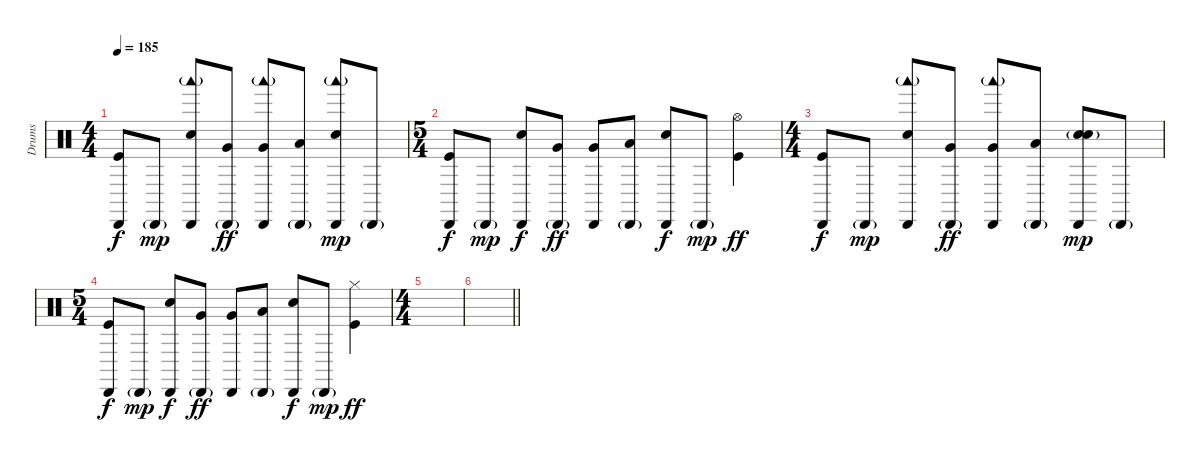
\track ("Drums" "Drums") {instrument percussion}
\staff {score}
\articulation defaults
\ts (4 4)
\tempo 185
\clef neutral
\ks c
("Cabasa (hit)" "Kick (hit)").8{dy f} "Cabasa (hit)"{g}.8{dy mp} ("Woodblock low (hit)"{g} "Cabasa (hit)" "Snare (hit) 2").8 ("Cabasa (hit)"{g} "Very Low Tom (hit)").8{dy ff} ("Woodblock low (hit)"{g} "Cabasa (hit)" "Very Low Tom (hit)").8 ("Cabasa (hit)"{g} "Low Floor Tom (hit)").8 ("Woodblock low (hit)"{g} "Cabasa (hit)" "Snare (hit) 2").8{dy mp} "Cabasa (hit)"{g}.8 |
\ts (5 4)
("Cabasa (hit)" "Kick (hit)").8{dy f} "Cabasa (hit)"{g}.8{dy mp} ("Cabasa (hit)" "Snare (hit) 2").8{dy f} ("Cabasa (hit)"{g} "Very Low Tom (hit)").8{dy ff} ("Cabasa (hit)" "Very Low Tom (hit)").8 ("Cabasa (hit)"{g} "Low Floor Tom (hit)").8 ("Cabasa (hit)" "Snare (hit) 2").8{dy f} "Cabasa (hit)"{g}.8{dy mp} ("Hi-Hat (open)" "Kick (hit)").4{dy ff} |
\ts (4 4)
("Cabasa (hit)" "Kick (hit)").8{dy f} "Cabasa (hit)"{g}.8{dy mp} ("Woodblock low (hit)"{g} "Cabasa (hit)" "Snare (hit) 2").8 ("Cabasa (hit)"{g} "Very Low Tom (hit)").8{dy ff} ("Woodblock low (hit)"{g} "Cabasa (hit)" "Very Low Tom (hit)").8 ("Cabasa (hit)"{g} "Low Floor Tom (hit)").8 ("Snare (hit)"{g} "Cabasa (hit)" "Snare (hit) 2").8{dy mp} "Cabasa (hit)"{g}.8 |
\ts (5 4)
("Cabasa (hit)" "Kick (hit)").8{dy f} "Cabasa (hit)"{g}.8{dy mp} ("Cabasa (hit)" "Snare (hit) 2").8{dy f} ("Cabasa (hit)"{g} "Very Low Tom (hit)").8{dy ff} ("Cabasa (hit)" "Very Low Tom (hit)").8 ("Cabasa (hit)"{g} "Low Floor Tom (hit)").8 ("Cabasa (hit)" "Snare (hit) 2").8{dy f} "Cabasa (hit)"{g}.8{dy mp} ("Hi-Hat (closed)" "Kick (hit)").4{dy ff} |
\ts (4 4)
|
\barLineRight lightlight
